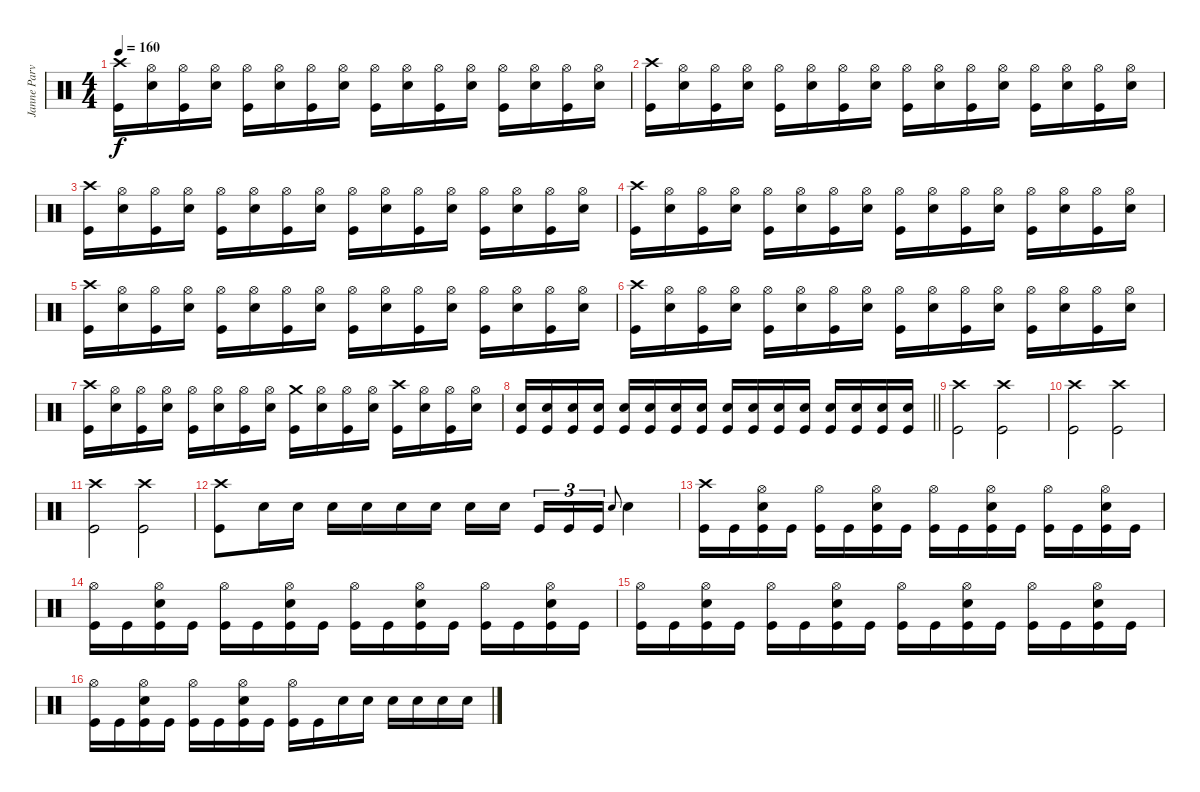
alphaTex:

\track ("Janne Parviainen" "Janne Parv") {instrument percussion}
\staff {score}
\articulation defaults
\ts (4 4)
\tempo 160
\clef neutral
\ks c
("Crash high (hit)" "Kick (hit)").16{dy f} ("Hi-Hat (open)" "Electric Snare (hit)").16 ("Hi-Hat (open)" "Kick (hit)").16 ("Hi-Hat (open)" "Electric Snare (hit)").16 ("Hi-Hat (open)" "Kick (hit)").16 ("Hi-Hat (open)" "Electric Snare (hit)").16 ("Hi-Hat (open)" "Kick (hit)").16 ("Hi-Hat (open)" "Electric Snare (hit)").16 ("Hi-Hat (open)" "Kick (hit)").16 ("Hi-Hat (open)" "Electric Snare (hit)").16 ("Hi-Hat (open)" "Kick (hit)").16 ("Hi-Hat (open)" "Electric Snare (hit)").16 ("Hi-Hat (open)" "Kick (hit)").16 ("Hi-Hat (open)" "Electric Snare (hit)").16 ("Hi-Hat (open)" "Kick (hit)").16 ("Hi-Hat (open)" "Electric Snare (hit)").16 |
("Crash high (hit)" "Kick (hit)").16 ("Hi-Hat (open)" "Electric Snare (hit)").16 ("Hi-Hat (open)" "Kick (hit)").16 ("Hi-Hat (open)" "Electric Snare (hit)").16 ("Hi-Hat (open)" "Kick (hit)").16 ("Hi-Hat (open)" "Electric Snare (hit)").16 ("Hi-Hat (open)" "Kick (hit)").16 ("Hi-Hat (open)" "Electric Snare (hit)").16 ("Hi-Hat (open)" "Kick (hit)").16 ("Hi-Hat (open)" "Electric Snare (hit)").16 ("Hi-Hat (open)" "Kick (hit)").16 ("Hi-Hat (open)" "Electric Snare (hit)").16 ("Hi-Hat (open)" "Kick (hit)").16 ("Hi-Hat (open)" "Electric Snare (hit)").16 ("Hi-Hat (open)" "Kick (hit)").16 ("Hi-Hat (open)" "Electric Snare (hit)").16 |
("Crash high (hit)" "Kick (hit)").16 ("Hi-Hat (open)" "Electric Snare (hit)").16 ("Hi-Hat (open)" "Kick (hit)").16 ("Hi-Hat (open)" "Electric Snare (hit)").16 ("Hi-Hat (open)" "Kick (hit)").16 ("Hi-Hat (open)" "Electric Snare (hit)").16 ("Hi-Hat (open)" "Kick (hit)").16 ("Hi-Hat (open)" "Electric Snare (hit)").16 ("Hi-Hat (open)" "Kick (hit)").16 ("Hi-Hat (open)" "Electric Snare (hit)").16 ("Hi-Hat (open)" "Kick (hit)").16 ("Hi-Hat (open)" "Electric Snare (hit)").16 ("Hi-Hat (open)" "Kick (hit)").16 ("Hi-Hat (open)" "Electric Snare (hit)").16 ("Hi-Hat (open)" "Kick (hit)").16 ("Hi-Hat (open)" "Electric Snare (hit)").16 |
("Crash high (hit)" "Kick (hit)").16 ("Hi-Hat (open)" "Electric Snare (hit)").16 ("Hi-Hat (open)" "Kick (hit)").16 ("Hi-Hat (open)" "Electric Snare (hit)").16 ("Hi-Hat (open)" "Kick (hit)").16 ("Hi-Hat (open)" "Electric Snare (hit)").16 ("Hi-Hat (open)" "Kick (hit)").16 ("Hi-Hat (open)" "Electric Snare (hit)").16 ("Hi-Hat (open)" "Kick (hit)").16 ("Hi-Hat (open)" "Electric Snare (hit)").16 ("Hi-Hat (open)" "Kick (hit)").16 ("Hi-Hat (open)" "Electric Snare (hit)").16 ("Hi-Hat (open)" "Kick (hit)").16 ("Hi-Hat (open)" "Electric Snare (hit)").16 ("Hi-Hat (open)" "Kick (hit)").16 ("Hi-Hat (open)" "Electric Snare (hit)").16 |
("Crash high (hit)" "Kick (hit)").16 ("Hi-Hat (open)" "Electric Snare (hit)").16 ("Hi-Hat (open)" "Kick (hit)").16 ("Hi-Hat (open)" "Electric Snare (hit)").16 ("Hi-Hat (open)" "Kick (hit)").16 ("Hi-Hat (open)" "Electric Snare (hit)").16 ("Hi-Hat (open)" "Kick (hit)").16 ("Hi-Hat (open)" "Electric Snare (hit)").16 ("Hi-Hat (open)" "Kick (hit)").16 ("Hi-Hat (open)" "Electric Snare (hit)").16 ("Hi-Hat (open)" "Kick (hit)").16 ("Hi-Hat (open)" "Electric Snare (hit)").16 ("Hi-Hat (open)" "Kick (hit)").16 ("Hi-Hat (open)" "Electric Snare (hit)").16 ("Hi-Hat (open)" "Kick (hit)").16 ("Hi-Hat (open)" "Electric Snare (hit)").16 |
("Crash high (hit)" "Kick (hit)").16 ("Hi-Hat (open)" "Electric Snare (hit)").16 ("Hi-Hat (open)" "Kick (hit)").16 ("Hi-Hat (open)" "Electric Snare (hit)").16 ("Hi-Hat (open)" "Kick (hit)").16 ("Hi-Hat (open)" "Electric Snare (hit)").16 ("Hi-Hat (open)" "Kick (hit)").16 ("Hi-Hat (open)" "Electric Snare (hit)").16 ("Hi-Hat (open)" "Kick (hit)").16 ("Hi-Hat (open)" "Electric Snare (hit)").16 ("Hi-Hat (open)" "Kick (hit)").16 ("Hi-Hat (open)" "Electric Snare (hit)").16 ("Hi-Hat (open)" "Kick (hit)").16 ("Hi-Hat (open)" "Electric Snare (hit)").16 ("Hi-Hat (open)" "Kick (hit)").16 ("Hi-Hat (open)" "Electric Snare (hit)").16 |
("Crash high (hit)" "Kick (hit)").16 ("Hi-Hat (open)" "Electric Snare (hit)").16 ("Hi-Hat (open)" "Kick (hit)").16 ("Hi-Hat (open)" "Electric Snare (hit)").16 ("Hi-Hat (open)" "Kick (hit)").16 ("Hi-Hat (open)" "Electric Snare (hit)").16 ("Hi-Hat (open)" "Kick (hit)").16 ("Hi-Hat (open)" "Electric Snare (hit)").16 ("Crash medium (hit)" "Kick (hit)").16 ("Hi-Hat (open)" "Electric Snare (hit)").16 ("Hi-Hat (open)" "Kick (hit)").16 ("Hi-Hat (open)" "Electric Snare (hit)").16 ("Crash high (hit)" "Kick (hit)").16 ("Hi-Hat (open)" "Electric Snare (hit)").16 ("Hi-Hat (open)" "Kick (hit)").16 ("Hi-Hat (open)" "Electric Snare (hit)").16 |
\barLineRight lightlight
("Electric Snare (hit)" "Kick (hit)").16 ("Electric Snare (hit)" "Kick (hit)").16 ("Electric Snare (hit)" "Kick (hit)").16 ("Electric Snare (hit)" "Kick (hit)").16 ("Electric Snare (hit)" "Kick (hit)").16 ("Electric Snare (hit)" "Kick (hit)").16 ("Electric Snare (hit)" "Kick (hit)").16 ("Electric Snare (hit)" "Kick (hit)").16 ("Electric Snare (hit)" "Kick (hit)").16 ("Electric Snare (hit)" "Kick (hit)").16 ("Electric Snare (hit)" "Kick (hit)").16 ("Electric Snare (hit)" "Kick (hit)").16 ("Electric Snare (hit)" "Kick (hit)").16 ("Electric Snare (hit)" "Kick (hit)").16 ("Electric Snare (hit)" "Kick (hit)").16 ("Electric Snare (hit)" "Kick (hit)").16 |
("Crash high (hit)" "Kick (hit)").2 ("Crash high (hit)" "Kick (hit)").2 |
("Crash high (hit)" "Kick (hit)").2 ("Crash high (hit)" "Kick (hit)").2 |
("Crash high (hit)" "Kick (hit)").2 ("Crash high (hit)" "Kick (hit)").2 |
("Crash high (hit)" "Kick (hit)").8 "Electric Snare (hit)".16 "Electric Snare (hit)".16 "Electric Snare (hit)".16 "Electric Snare (hit)".16 "Electric Snare (hit)".16 "Electric Snare (hit)".16 "Electric Snare (hit)".16 "Electric Snare (hit)".16{beam splitsecondary} "Kick (hit)".16{tu (3 2)} "Kick (hit)".16{tu (3 2)} "Kick (hit)".16{tu (3 2)} "Electric Snare (hit)".8{gr onbeat} "Electric Snare (hit)".4 |
("Crash high (hit)" "Kick (hit)").16 "Kick (hit)".16 ("Hi-Hat (open)" "Electric Snare (hit)" "Kick (hit)").16 "Kick (hit)".16 ("Hi-Hat (open)" "Kick (hit)").16 "Kick (hit)".16 ("Hi-Hat (open)" "Electric Snare (hit)" "Kick (hit)").16 "Kick (hit)".16 ("Hi-Hat (open)" "Kick (hit)").16 "Kick (hit)".16 ("Hi-Hat (open)" "Electric Snare (hit)" "Kick (hit)").16 "Kick (hit)".16 ("Hi-Hat (open)" "Kick (hit)").16 "Kick (hit)".16 ("Hi-Hat (open)" "Electric Snare (hit)" "Kick (hit)").16 "Kick (hit)".16 |
("Hi-Hat (open)" "Kick (hit)").16 "Kick (hit)".16 ("Hi-Hat (open)" "Electric Snare (hit)" "Kick (hit)").16 "Kick (hit)".16 ("Hi-Hat (open)" "Kick (hit)").16 "Kick (hit)".16 ("Hi-Hat (open)" "Electric Snare (hit)" "Kick (hit)").16 "Kick (hit)".16 ("Hi-Hat (open)" "Kick (hit)").16 "Kick (hit)".16 ("Hi-Hat (open)" "Electric Snare (hit)" "Kick (hit)").16 "Kick (hit)".16 ("Hi-Hat (open)" "Kick (hit)").16 "Kick (hit)".16 ("Hi-Hat (open)" "Electric Snare (hit)" "Kick (hit)").16 "Kick (hit)".16 |
("Hi-Hat (open)" "Kick (hit)").16 "Kick (hit)".16 ("Hi-Hat (open)" "Electric Snare (hit)" "Kick (hit)").16 "Kick (hit)".16 ("Hi-Hat (open)" "Kick (hit)").16 "Kick (hit)".16 ("Hi-Hat (open)" "Electric Snare (hit)" "Kick (hit)").16 "Kick (hit)".16 ("Hi-Hat (open)" "Kick (hit)").16 "Kick (hit)".16 ("Hi-Hat (open)" "Electric Snare (hit)" "Kick (hit)").16 "Kick (hit)".16 ("Hi-Hat (open)" "Kick (hit)").16 "Kick (hit)".16 ("Hi-Hat (open)" "Electric Snare (hit)" "Kick (hit)").16 "Kick (hit)".16 |
("Hi-Hat (open)" "Kick (hit)").16 "Kick (hit)".16 ("Hi-Hat (open)" "Electric Snare (hit)" "Kick (hit)").16 "Kick (hit)".16 ("Hi-Hat (open)" "Kick (hit)").16 "Kick (hit)".16 ("Hi-Hat (open)" "Electric Snare (hit)" "Kick (hit)").16 "Kick (hit)".16 ("Hi-Hat (open)" "Kick (hit)").16 "Kick (hit)".16 "Electric Snare (hit)".16 "Electric Snare (hit)".16 "Electric Snare (hit)".16 "Electric Snare (hit)".16 "Electric Snare (hit)".16 "Electric Snare (hit)".16
